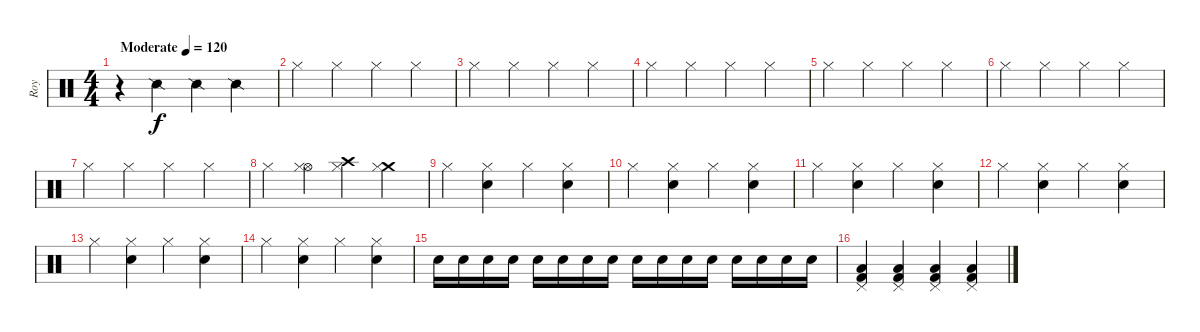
\track ("Roy" "Roy") {instrument percussion}
\staff {score}
\articulation defaults
\ts (4 4)
\tempo (120 "Moderate")
\clef neutral
\ks c
r.4{dy f} "Snare (side stick) 2".4 "Snare (side stick) 2".4 "Snare (side stick) 2".4 |
"Hi-Hat (closed)".4 "Hi-Hat (closed)".4 "Hi-Hat (closed)".4 "Hi-Hat (closed)".4 |
"Hi-Hat (closed)".4 "Hi-Hat (closed)".4 "Hi-Hat (closed)".4 "Hi-Hat (closed)".4 |
"Hi-Hat (closed)".4 "Hi-Hat (closed)".4 "Hi-Hat (closed)".4 "Hi-Hat (closed)".4 |
"Hi-Hat (closed)".4 "Hi-Hat (closed)".4 "Hi-Hat (closed)".4 "Hi-Hat (closed)".4 |
"Hi-Hat (closed)".4 "Hi-Hat (closed)".4 "Hi-Hat (closed)".4 "Hi-Hat (closed)".4 |
"Hi-Hat (closed)".4 "Hi-Hat (closed)".4 "Hi-Hat (closed)".4 "Hi-Hat (closed)".4 |
"Hi-Hat (closed)".4 ("Hi-Hat (open)" "Hi-Hat (closed)").4 ("Crash high (hit)" "Hi-Hat (closed)").4 ("Crash medium (hit)" "Hi-Hat (closed)").4 |
"Hi-Hat (closed)".4 ("Electric Snare (hit)" "Hi-Hat (closed)").4 "Hi-Hat (closed)".4 ("Electric Snare (hit)" "Hi-Hat (closed)").4 |
"Hi-Hat (closed)".4 ("Electric Snare (hit)" "Hi-Hat (closed)").4 "Hi-Hat (closed)".4 ("Electric Snare (hit)" "Hi-Hat (closed)").4 |
"Hi-Hat (closed)".4 ("Electric Snare (hit)" "Hi-Hat (closed)").4 "Hi-Hat (closed)".4 ("Electric Snare (hit)" "Hi-Hat (closed)").4 |
"Hi-Hat (closed)".4 ("Electric Snare (hit)" "Hi-Hat (closed)").4 "Hi-Hat (closed)".4 ("Electric Snare (hit)" "Hi-Hat (closed)").4 |
"Hi-Hat (closed)".4 ("Electric Snare (hit)" "Hi-Hat (closed)").4 "Hi-Hat (closed)".4 ("Electric Snare (hit)" "Hi-Hat (closed)").4 |
"Hi-Hat (closed)".4 ("Electric Snare (hit)" "Hi-Hat (closed)").4 "Hi-Hat (closed)".4 ("Electric Snare (hit)" "Hi-Hat (closed)").4 |
"Snare (hit) 2".16 "Snare (hit) 2".16 "Snare (hit) 2".16 "Snare (hit) 2".16 "Snare (hit) 2".16 "Snare (hit) 2".16 "Snare (hit) 2".16 "Snare (hit) 2".16 "Electric Snare (hit)".16 "Electric Snare (hit)".16 "Electric Snare (hit)".16 "Electric Snare (hit)".16 "Electric Snare (hit)".16 "Electric Snare (hit)".16 "Electric Snare (hit)".16 "Electric Snare (hit)".16 |
("Pedal Hi-Hat (hit)" "Low Floor Tom (hit)" "Kick (hit) 2").4 ("Pedal Hi-Hat (hit)" "Low Floor Tom (hit)" "Kick (hit) 2").4 ("Pedal Hi-Hat (hit)" "Low Floor Tom (hit)" "Kick (hit) 2").4 ("Pedal Hi-Hat (hit)" "Low Floor Tom (hit)" "Kick (hit) 2").4
